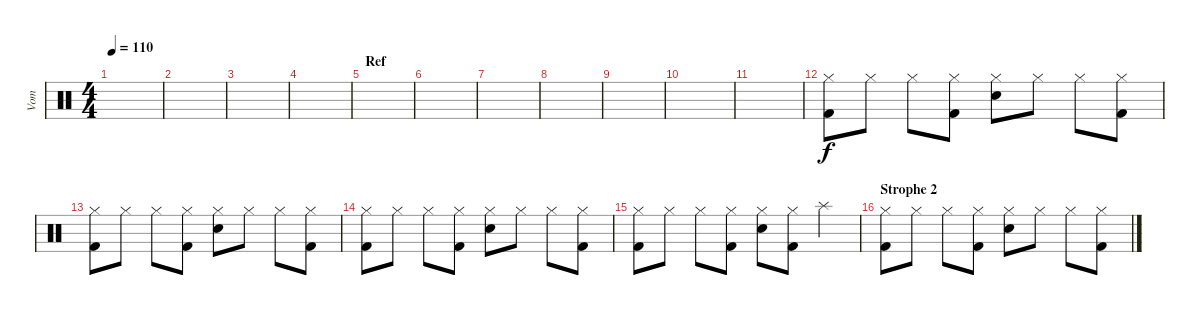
\track ("Vom" "Vom") {instrument percussion}
\staff {score}
\articulation defaults
\ts (4 4)
\tempo 110
\clef neutral
\ks c
|
|
|
|
\section ("" "Ref")
|
|
|
|
|
|
|
("Kick (hit) 2" "Hi-Hat (closed)").8 "Hi-Hat (closed)".8 "Hi-Hat (closed)".8 ("Kick (hit) 2" "Hi-Hat (closed)").8 ("Snare (hit) 2" "Hi-Hat (closed)").8 "Hi-Hat (closed)".8 "Hi-Hat (closed)".8 ("Kick (hit) 2" "Hi-Hat (closed)").8 |
("Kick (hit) 2" "Hi-Hat (closed)").8 "Hi-Hat (closed)".8 "Hi-Hat (closed)".8 ("Kick (hit) 2" "Hi-Hat (closed)").8 ("Snare (hit) 2" "Hi-Hat (closed)").8 "Hi-Hat (closed)".8 "Hi-Hat (closed)".8 ("Kick (hit) 2" "Hi-Hat (closed)").8 |
("Kick (hit) 2" "Hi-Hat (closed)").8 "Hi-Hat (closed)".8 "Hi-Hat (closed)".8 ("Kick (hit) 2" "Hi-Hat (closed)").8 ("Snare (hit) 2" "Hi-Hat (closed)").8 "Hi-Hat (closed)".8 "Hi-Hat (closed)".8 ("Kick (hit) 2" "Hi-Hat (closed)").8 |
("Kick (hit) 2" "Hi-Hat (closed)").8 "Hi-Hat (closed)".8 "Hi-Hat (closed)".8 ("Kick (hit) 2" "Hi-Hat (closed)").8 ("Snare (hit) 2" "Hi-Hat (closed)").8 ("Kick (hit) 2" "Hi-Hat (closed)").8 "Splash (hit)".4 |
\section ("" "Strophe 2")
("Kick (hit) 2" "Hi-Hat (closed)").8 "Hi-Hat (closed)".8 "Hi-Hat (closed)".8 ("Kick (hit) 2" "Hi-Hat (closed)").8 ("Snare (hit) 2" "Hi-Hat (closed)").8 "Hi-Hat (closed)".8 "Hi-Hat (closed)".8 ("Kick (hit) 2" "Hi-Hat (closed)").8
